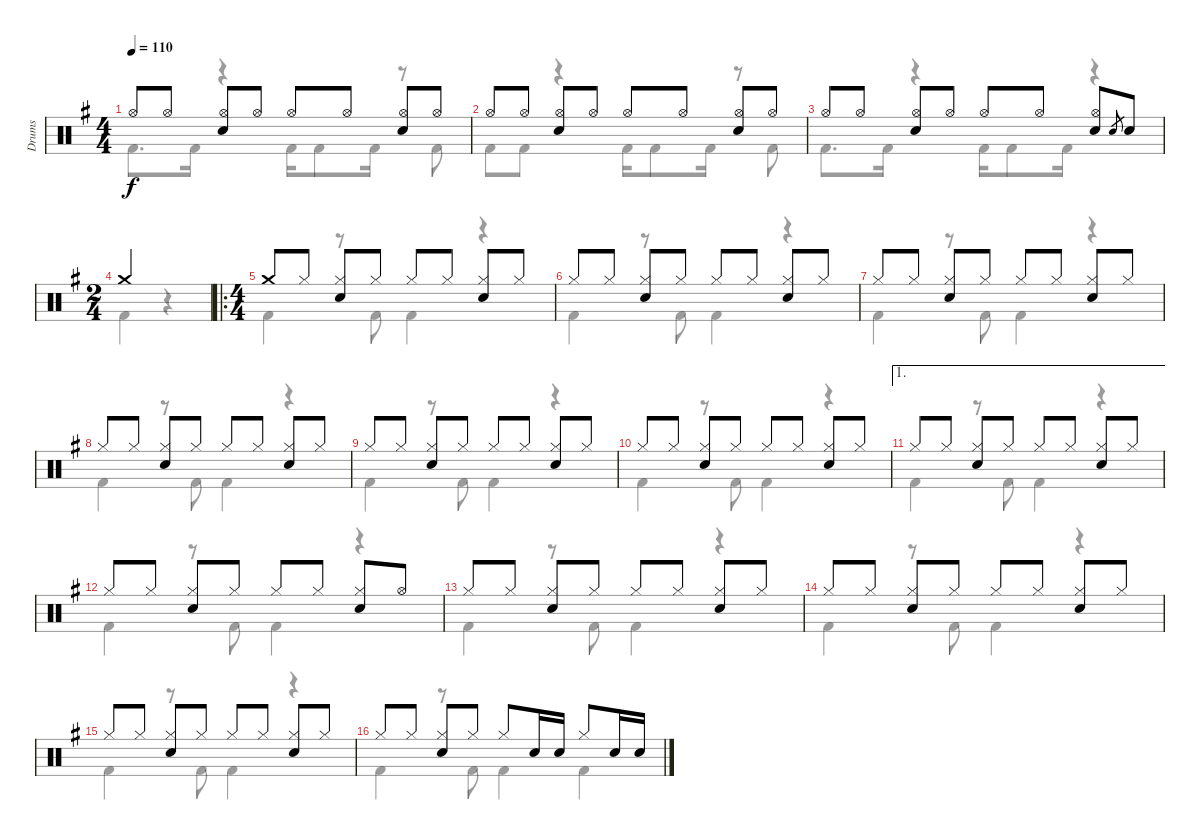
\track ("Drums" "Drums") {instrument percussion}
\staff {score}
\articulation defaults
\voice
\ts (4 4)
\tempo 110
\clef neutral
\ks g "Hi-Hat (open)".8{dy f} "Hi-Hat (open)".8
("Hi-Hat (open)" "Snare (hit) 2").8 "Hi-Hat (open)".8 "Hi-Hat (open)".8 "Hi-Hat (open)".8 ("Hi-Hat (open)" "Snare (hit) 2").8 "Hi-Hat (open)".8 |
"Hi-Hat (open)".8 "Hi-Hat (open)".8 ("Hi-Hat (open)" "Snare (hit) 2").8 "Hi-Hat (open)".8 "Hi-Hat (open)".8 "Hi-Hat (open)".8 ("Hi-Hat (open)" "Snare (hit) 2").8 "Hi-Hat (open)".8 |
"Hi-Hat (open)".8 "Hi-Hat (open)".8 ("Hi-Hat (open)" "Snare (hit) 2").8 "Hi-Hat (open)".8 "Hi-Hat (open)".8 "Hi-Hat (open)".8 ("Hi-Hat (open)" "Snare (hit) 2").8 "Snare (hit) 2".8{gr} "Snare (hit) 2".8 |
\ts (2 4)
"Crash medium (hit)".2 |
\ro
\ts (4 4)
"Crash medium (hit)".8 "Hi-Hat (closed)".8 ("Hi-Hat (closed)" "Snare (hit) 2").8 "Hi-Hat (closed)".8 "Hi-Hat (closed)".8 "Hi-Hat (closed)".8 ("Hi-Hat (closed)" "Snare (hit) 2").8 "Hi-Hat (closed)".8 |
"Hi-Hat (closed)".8 "Hi-Hat (closed)".8 ("Hi-Hat (closed)" "Snare (hit) 2").8 "Hi-Hat (closed)".8 "Hi-Hat (closed)".8 "Hi-Hat (closed)".8 ("Hi-Hat (closed)" "Snare (hit) 2").8 "Hi-Hat (closed)".8 |
"Hi-Hat (closed)".8 "Hi-Hat (closed)".8 ("Hi-Hat (closed)" "Snare (hit) 2").8 "Hi-Hat (closed)".8 "Hi-Hat (closed)".8 "Hi-Hat (closed)".8 ("Hi-Hat (closed)" "Snare (hit) 2").8 "Hi-Hat (closed)".8 |
"Hi-Hat (closed)".8 "Hi-Hat (closed)".8 ("Hi-Hat (closed)" "Snare (hit) 2").8 "Hi-Hat (closed)".8 "Hi-Hat (closed)".8 "Hi-Hat (closed)".8 ("Hi-Hat (closed)" "Snare (hit) 2").8 "Hi-Hat (closed)".8 |
"Hi-Hat (closed)".8 "Hi-Hat (closed)".8 ("Hi-Hat (closed)" "Snare (hit) 2").8 "Hi-Hat (closed)".8 "Hi-Hat (closed)".8 "Hi-Hat (closed)".8 ("Hi-Hat (closed)" "Snare (hit) 2").8 "Hi-Hat (closed)".8 |
"Hi-Hat (closed)".8 "Hi-Hat (closed)".8 ("Hi-Hat (closed)" "Snare (hit) 2").8 "Hi-Hat (closed)".8 "Hi-Hat (closed)".8 "Hi-Hat (closed)".8 ("Hi-Hat (closed)" "Snare (hit) 2").8 "Hi-Hat (closed)".8 |
\ae 1 "Hi-Hat (closed)".8 "Hi-Hat (closed)".8
("Hi-Hat (closed)" "Snare (hit) 2").8 "Hi-Hat (closed)".8 "Hi-Hat (closed)".8 "Hi-Hat (closed)".8 ("Hi-Hat (closed)" "Snare (hit) 2").8 "Hi-Hat (closed)".8 |
"Hi-Hat (closed)".8 "Hi-Hat (closed)".8 ("Hi-Hat (closed)" "Snare (hit) 2").8 "Hi-Hat (closed)".8 "Hi-Hat (closed)".8 "Hi-Hat (closed)".8 ("Hi-Hat (closed)" "Snare (hit) 2").8 "Hi-Hat (open)".8 |
"Hi-Hat (closed)".8 "Hi-Hat (closed)".8 ("Hi-Hat (closed)" "Snare (hit) 2").8 "Hi-Hat (closed)".8 "Hi-Hat (closed)".8 "Hi-Hat (closed)".8 ("Hi-Hat (closed)" "Snare (hit) 2").8 "Hi-Hat (closed)".8 |
"Hi-Hat (closed)".8 "Hi-Hat (closed)".8 ("Hi-Hat (closed)" "Snare (hit) 2").8 "Hi-Hat (closed)".8 "Hi-Hat (closed)".8 "Hi-Hat (closed)".8 ("Hi-Hat (closed)" "Snare (hit) 2").8 "Hi-Hat (closed)".8 |
"Hi-Hat (closed)".8 "Hi-Hat (closed)".8 ("Hi-Hat (closed)" "Snare (hit) 2").8 "Hi-Hat (closed)".8 "Hi-Hat (closed)".8 "Hi-Hat (closed)".8 ("Hi-Hat (closed)" "Snare (hit) 2").8 "Hi-Hat (closed)".8 |
"Hi-Hat (closed)".8 "Hi-Hat (closed)".8 ("Hi-Hat (closed)" "Snare (hit) 2").8 "Hi-Hat (closed)".8 "Hi-Hat (closed)".8 "Snare (hit) 2".16 "Snare (hit) 2".16 "Hi-Hat (closed)".8 "Snare (hit) 2".16 "Snare (hit) 2".16
\voice
\clef neutral
\ottava regular
\simile none
\ks g "Kick (hit) 2".8{d dy f} "Kick (hit) 2".16
r.4 "Kick (hit) 2".16 "Kick (hit) 2".8 "Kick (hit) 2".16 r.8 "Kick (hit) 2".8 |
"Kick (hit) 2".8 "Kick (hit) 2".8 r.4 "Kick (hit) 2".16 "Kick (hit) 2".8 "Kick (hit) 2".16 r.8 "Kick (hit) 2".8 |
"Kick (hit) 2".8{d} "Kick (hit) 2".16 r.4 "Kick (hit) 2".16 "Kick (hit) 2".8 "Kick (hit) 2".16 r.4 |
"Kick (hit) 2".4 r.4 |
"Kick (hit) 2".4 r.8 "Kick (hit) 2".8 "Kick (hit) 2".4 r.4 |
"Kick (hit) 2".4 r.8 "Kick (hit) 2".8 "Kick (hit) 2".4 r.4 |
"Kick (hit) 2".4 r.8 "Kick (hit) 2".8 "Kick (hit) 2".4 r.4 |
"Kick (hit) 2".4 r.8 "Kick (hit) 2".8 "Kick (hit) 2".4 r.4 |
"Kick (hit) 2".4 r.8 "Kick (hit) 2".8 "Kick (hit) 2".4 r.4 |
"Kick (hit) 2".4 r.8 "Kick (hit) 2".8 "Kick (hit) 2".4 r.4 |
"Kick (hit) 2".4 r.8 "Kick (hit) 2".8 "Kick (hit) 2".4 r.4 |
"Kick (hit) 2".4 r.8 "Kick (hit) 2".8 "Kick (hit) 2".4 r.4 |
"Kick (hit) 2".4 r.8 "Kick (hit) 2".8 "Kick (hit) 2".4 r.4 |
"Kick (hit) 2".4 r.8 "Kick (hit) 2".8 "Kick (hit) 2".4 r.4 |
"Kick (hit) 2".4 r.8 "Kick (hit) 2".8 "Kick (hit) 2".4 r.4 |
"Kick (hit) 2".4 r.8 "Kick (hit) 2".8 "Kick (hit) 2".4 "Kick (hit) 2".4
